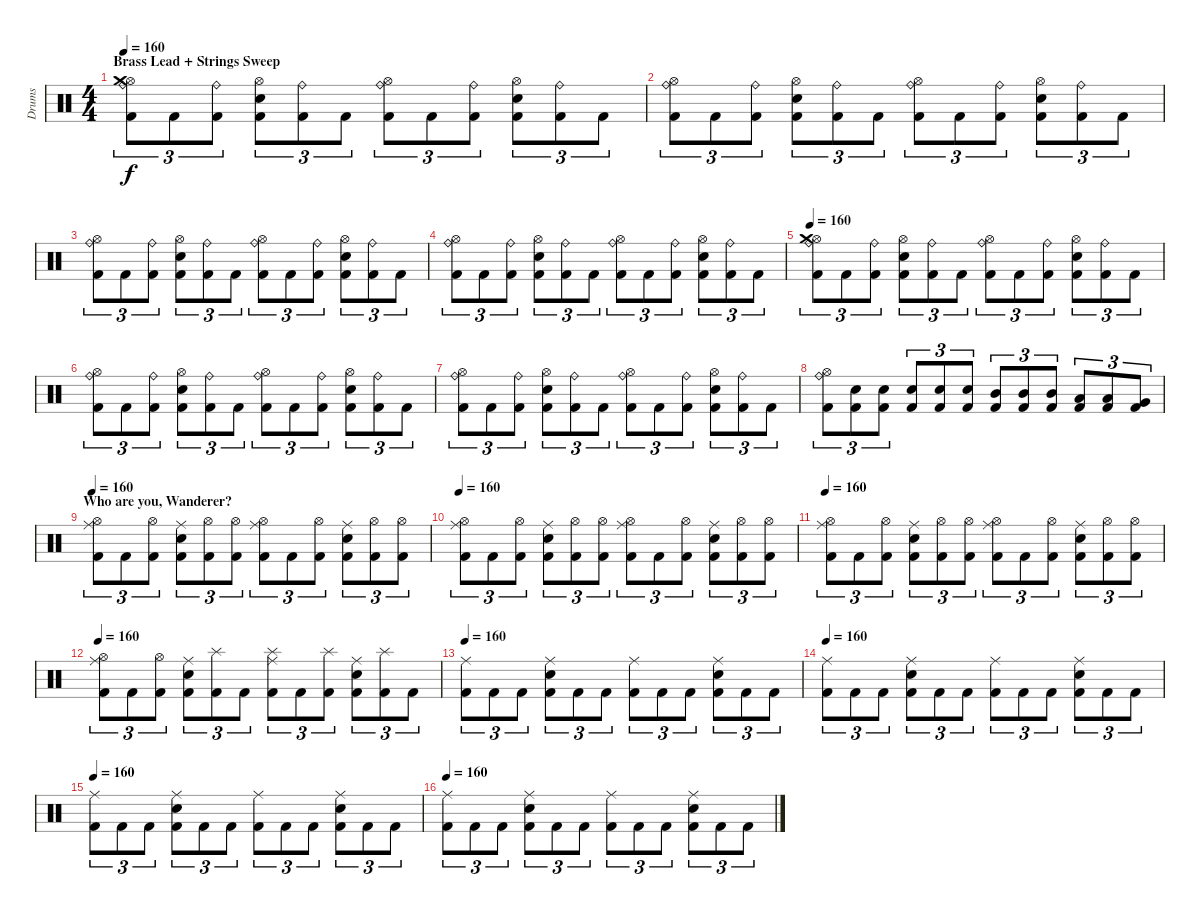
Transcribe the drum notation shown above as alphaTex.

\track ("Drums" "Drums") {instrument percussion}
\staff {score}
\articulation defaults
\ts (4 4)
\section ("" "Brass Lead + Strings Sweep")
\tempo 160
\clef neutral
\ks c
("Ride (bell)" "Hi-Hat (open)" "Crash medium (hit)" "Kick (hit) 2").8{tu (3 2) dy f} "Kick (hit) 2".8{tu (3 2)} ("Ride (bell)" "Kick (hit) 2").8{tu (3 2)} ("Hi-Hat (open)" "Snare (hit) 2" "Kick (hit) 2").8{tu (3 2)} ("Ride (bell)" "Kick (hit) 2").8{tu (3 2)} "Kick (hit) 2".8{tu (3 2)} ("Ride (bell)" "Hi-Hat (open)" "Kick (hit) 2").8{tu (3 2)} "Kick (hit) 2".8{tu (3 2)} ("Ride (bell)" "Kick (hit) 2").8{tu (3 2)} ("Hi-Hat (open)" "Snare (hit) 2" "Kick (hit) 2").8{tu (3 2)} ("Ride (bell)" "Kick (hit) 2").8{tu (3 2)} "Kick (hit) 2".8{tu (3 2)} |
("Ride (bell)" "Hi-Hat (open)" "Kick (hit) 2").8{tu (3 2)} "Kick (hit) 2".8{tu (3 2)} ("Ride (bell)" "Kick (hit) 2").8{tu (3 2)} ("Hi-Hat (open)" "Snare (hit) 2" "Kick (hit) 2").8{tu (3 2)} ("Ride (bell)" "Kick (hit) 2").8{tu (3 2)} "Kick (hit) 2".8{tu (3 2)} ("Ride (bell)" "Hi-Hat (open)" "Kick (hit) 2").8{tu (3 2)} "Kick (hit) 2".8{tu (3 2)} ("Ride (bell)" "Kick (hit) 2").8{tu (3 2)} ("Hi-Hat (open)" "Snare (hit) 2" "Kick (hit) 2").8{tu (3 2)} ("Ride (bell)" "Kick (hit) 2").8{tu (3 2)} "Kick (hit) 2".8{tu (3 2)} |
("Ride (bell)" "Hi-Hat (open)" "Kick (hit) 2").8{tu (3 2)} "Kick (hit) 2".8{tu (3 2)} ("Ride (bell)" "Kick (hit) 2").8{tu (3 2)} ("Hi-Hat (open)" "Snare (hit) 2" "Kick (hit) 2").8{tu (3 2)} ("Ride (bell)" "Kick (hit) 2").8{tu (3 2)} "Kick (hit) 2".8{tu (3 2)} ("Ride (bell)" "Hi-Hat (open)" "Kick (hit) 2").8{tu (3 2)} "Kick (hit) 2".8{tu (3 2)} ("Ride (bell)" "Kick (hit) 2").8{tu (3 2)} ("Hi-Hat (open)" "Snare (hit) 2" "Kick (hit) 2").8{tu (3 2)} ("Ride (bell)" "Kick (hit) 2").8{tu (3 2)} "Kick (hit) 2".8{tu (3 2)} |
("Ride (bell)" "Hi-Hat (open)" "Kick (hit) 2").8{tu (3 2)} "Kick (hit) 2".8{tu (3 2)} ("Ride (bell)" "Kick (hit) 2").8{tu (3 2)} ("Hi-Hat (open)" "Snare (hit) 2" "Kick (hit) 2").8{tu (3 2)} ("Ride (bell)" "Kick (hit) 2").8{tu (3 2)} "Kick (hit) 2".8{tu (3 2)} ("Ride (bell)" "Hi-Hat (open)" "Kick (hit) 2").8{tu (3 2)} "Kick (hit) 2".8{tu (3 2)} ("Ride (bell)" "Kick (hit) 2").8{tu (3 2)} ("Hi-Hat (open)" "Snare (hit) 2" "Kick (hit) 2").8{tu (3 2)} ("Ride (bell)" "Kick (hit) 2").8{tu (3 2)} "Kick (hit) 2".8{tu (3 2)} |
\tempo 160
("Ride (bell)" "Hi-Hat (open)" "Crash medium (hit)" "Kick (hit) 2").8{tu (3 2)} "Kick (hit) 2".8{tu (3 2)} ("Ride (bell)" "Kick (hit) 2").8{tu (3 2)} ("Hi-Hat (open)" "Snare (hit) 2" "Kick (hit) 2").8{tu (3 2)} ("Ride (bell)" "Kick (hit) 2").8{tu (3 2)} "Kick (hit) 2".8{tu (3 2)} ("Ride (bell)" "Hi-Hat (open)" "Kick (hit) 2").8{tu (3 2)} "Kick (hit) 2".8{tu (3 2)} ("Ride (bell)" "Kick (hit) 2").8{tu (3 2)} ("Hi-Hat (open)" "Snare (hit) 2" "Kick (hit) 2").8{tu (3 2)} ("Ride (bell)" "Kick (hit) 2").8{tu (3 2)} "Kick (hit) 2".8{tu (3 2)} |
("Ride (bell)" "Hi-Hat (open)" "Kick (hit) 2").8{tu (3 2)} "Kick (hit) 2".8{tu (3 2)} ("Ride (bell)" "Kick (hit) 2").8{tu (3 2)} ("Hi-Hat (open)" "Snare (hit) 2" "Kick (hit) 2").8{tu (3 2)} ("Ride (bell)" "Kick (hit) 2").8{tu (3 2)} "Kick (hit) 2".8{tu (3 2)} ("Ride (bell)" "Hi-Hat (open)" "Kick (hit) 2").8{tu (3 2)} "Kick (hit) 2".8{tu (3 2)} ("Ride (bell)" "Kick (hit) 2").8{tu (3 2)} ("Hi-Hat (open)" "Snare (hit) 2" "Kick (hit) 2").8{tu (3 2)} ("Ride (bell)" "Kick (hit) 2").8{tu (3 2)} "Kick (hit) 2".8{tu (3 2)} |
("Ride (bell)" "Hi-Hat (open)" "Kick (hit) 2").8{tu (3 2)} "Kick (hit) 2".8{tu (3 2)} ("Ride (bell)" "Kick (hit) 2").8{tu (3 2)} ("Hi-Hat (open)" "Snare (hit) 2" "Kick (hit) 2").8{tu (3 2)} ("Ride (bell)" "Kick (hit) 2").8{tu (3 2)} "Kick (hit) 2".8{tu (3 2)} ("Ride (bell)" "Hi-Hat (open)" "Kick (hit) 2").8{tu (3 2)} "Kick (hit) 2".8{tu (3 2)} ("Ride (bell)" "Kick (hit) 2").8{tu (3 2)} ("Hi-Hat (open)" "Snare (hit) 2" "Kick (hit) 2").8{tu (3 2)} ("Ride (bell)" "Kick (hit) 2").8{tu (3 2)} "Kick (hit) 2".8{tu (3 2)} |
("Ride (bell)" "Hi-Hat (open)" "Kick (hit) 2").8{tu (3 2)} ("Snare (hit) 2" "Kick (hit) 2").8{tu (3 2)} ("Snare (hit) 2" "Kick (hit) 2").8{tu (3 2)} ("Snare (hit) 2" "Kick (hit) 2").8{tu (3 2)} ("Snare (hit) 2" "Kick (hit) 2").8{tu (3 2)} ("Snare (hit) 2" "Kick (hit) 2").8{tu (3 2)} ("Mid Tom (hit)" "Kick (hit) 2").8{tu (3 2)} ("Mid Tom (hit)" "Kick (hit) 2").8{tu (3 2)} ("Mid Tom (hit)" "Kick (hit) 2").8{tu (3 2)} ("Low Tom (hit)" "Kick (hit) 2").8{tu (3 2)} ("Low Tom (hit)" "Kick (hit) 2").8{tu (3 2)} ("Very Low Tom (hit)" "Kick (hit) 2").8{tu (3 2)} |
\section ("" "Who are you, Wanderer?")
\tempo 160
("Ride (middle)" "Hi-Hat (open)" "Kick (hit) 2").8{tu (3 2)} "Kick (hit) 2".8{tu (3 2)} ("Hi-Hat (open)" "Kick (hit) 2").8{tu (3 2)} ("Ride (middle)" "Snare (hit) 2" "Kick (hit) 2").8{tu (3 2)} ("Hi-Hat (open)" "Kick (hit) 2").8{tu (3 2)} ("Hi-Hat (open)" "Kick (hit) 2").8{tu (3 2)} ("Ride (middle)" "Hi-Hat (open)" "Kick (hit) 2").8{tu (3 2)} "Kick (hit) 2".8{tu (3 2)} ("Hi-Hat (open)" "Kick (hit) 2").8{tu (3 2)} ("Ride (middle)" "Snare (hit) 2" "Kick (hit) 2").8{tu (3 2)} ("Hi-Hat (open)" "Kick (hit) 2").8{tu (3 2)} ("Hi-Hat (open)" "Kick (hit) 2").8{tu (3 2)} |
\tempo 160
("Ride (middle)" "Hi-Hat (open)" "Kick (hit) 2").8{tu (3 2)} "Kick (hit) 2".8{tu (3 2)} ("Hi-Hat (open)" "Kick (hit) 2").8{tu (3 2)} ("Ride (middle)" "Snare (hit) 2" "Kick (hit) 2").8{tu (3 2)} ("Hi-Hat (open)" "Kick (hit) 2").8{tu (3 2)} ("Hi-Hat (open)" "Kick (hit) 2").8{tu (3 2)} ("Ride (middle)" "Hi-Hat (open)" "Kick (hit) 2").8{tu (3 2)} "Kick (hit) 2".8{tu (3 2)} ("Hi-Hat (open)" "Kick (hit) 2").8{tu (3 2)} ("Ride (middle)" "Snare (hit) 2" "Kick (hit) 2").8{tu (3 2)} ("Hi-Hat (open)" "Kick (hit) 2").8{tu (3 2)} ("Hi-Hat (open)" "Kick (hit) 2").8{tu (3 2)} |
\tempo 160
("Ride (middle)" "Hi-Hat (open)" "Kick (hit) 2").8{tu (3 2)} "Kick (hit) 2".8{tu (3 2)} ("Hi-Hat (open)" "Kick (hit) 2").8{tu (3 2)} ("Ride (middle)" "Snare (hit) 2" "Kick (hit) 2").8{tu (3 2)} ("Hi-Hat (open)" "Kick (hit) 2").8{tu (3 2)} ("Hi-Hat (open)" "Kick (hit) 2").8{tu (3 2)} ("Ride (middle)" "Hi-Hat (open)" "Kick (hit) 2").8{tu (3 2)} "Kick (hit) 2".8{tu (3 2)} ("Hi-Hat (open)" "Kick (hit) 2").8{tu (3 2)} ("Ride (middle)" "Snare (hit) 2" "Kick (hit) 2").8{tu (3 2)} ("Hi-Hat (open)" "Kick (hit) 2").8{tu (3 2)} ("Hi-Hat (open)" "Kick (hit) 2").8{tu (3 2)} |
\tempo 160
("Ride (middle)" "Hi-Hat (open)" "Kick (hit) 2").8{tu (3 2)} "Kick (hit) 2".8{tu (3 2)} ("Hi-Hat (open)" "Kick (hit) 2").8{tu (3 2)} ("Ride (middle)" "Snare (hit) 2" "Kick (hit) 2").8{tu (3 2)} ("Splash (hit)" "Kick (hit) 2").8{tu (3 2)} "Kick (hit) 2".8{tu (3 2)} ("Ride (middle)" "Splash (hit)" "Kick (hit) 2").8{tu (3 2)} "Kick (hit) 2".8{tu (3 2)} ("Splash (hit)" "Kick (hit) 2").8{tu (3 2)} ("Ride (middle)" "Snare (hit) 2" "Kick (hit) 2").8{tu (3 2)} ("Splash (hit)" "Kick (hit) 2").8{tu (3 2)} "Kick (hit) 2".8{tu (3 2)} |
\tempo 160
("Ride (middle)" "Kick (hit) 2").8{tu (3 2)} "Kick (hit) 2".8{tu (3 2)} "Kick (hit) 2".8{tu (3 2)} ("Ride (middle)" "Snare (hit) 2" "Kick (hit) 2").8{tu (3 2)} "Kick (hit) 2".8{tu (3 2)} "Kick (hit) 2".8{tu (3 2)} ("Ride (middle)" "Kick (hit) 2").8{tu (3 2)} "Kick (hit) 2".8{tu (3 2)} "Kick (hit) 2".8{tu (3 2)} ("Ride (middle)" "Snare (hit) 2" "Kick (hit) 2").8{tu (3 2)} "Kick (hit) 2".8{tu (3 2)} "Kick (hit) 2".8{tu (3 2)} |
\tempo 160
("Ride (middle)" "Kick (hit) 2").8{tu (3 2)} "Kick (hit) 2".8{tu (3 2)} "Kick (hit) 2".8{tu (3 2)} ("Ride (middle)" "Snare (hit) 2" "Kick (hit) 2").8{tu (3 2)} "Kick (hit) 2".8{tu (3 2)} "Kick (hit) 2".8{tu (3 2)} ("Ride (middle)" "Kick (hit) 2").8{tu (3 2)} "Kick (hit) 2".8{tu (3 2)} "Kick (hit) 2".8{tu (3 2)} ("Ride (middle)" "Snare (hit) 2" "Kick (hit) 2").8{tu (3 2)} "Kick (hit) 2".8{tu (3 2)} "Kick (hit) 2".8{tu (3 2)} |
\tempo 160
("Ride (middle)" "Kick (hit) 2").8{tu (3 2)} "Kick (hit) 2".8{tu (3 2)} "Kick (hit) 2".8{tu (3 2)} ("Ride (middle)" "Snare (hit) 2" "Kick (hit) 2").8{tu (3 2)} "Kick (hit) 2".8{tu (3 2)} "Kick (hit) 2".8{tu (3 2)} ("Ride (middle)" "Kick (hit) 2").8{tu (3 2)} "Kick (hit) 2".8{tu (3 2)} "Kick (hit) 2".8{tu (3 2)} ("Ride (middle)" "Snare (hit) 2" "Kick (hit) 2").8{tu (3 2)} "Kick (hit) 2".8{tu (3 2)} "Kick (hit) 2".8{tu (3 2)} |
\tempo 160
("Ride (middle)" "Kick (hit) 2").8{tu (3 2)} "Kick (hit) 2".8{tu (3 2)} "Kick (hit) 2".8{tu (3 2)} ("Ride (middle)" "Snare (hit) 2" "Kick (hit) 2").8{tu (3 2)} "Kick (hit) 2".8{tu (3 2)} "Kick (hit) 2".8{tu (3 2)} ("Ride (middle)" "Kick (hit) 2").8{tu (3 2)} "Kick (hit) 2".8{tu (3 2)} "Kick (hit) 2".8{tu (3 2)} ("Ride (middle)" "Snare (hit) 2" "Kick (hit) 2").8{tu (3 2)} "Kick (hit) 2".8{tu (3 2)} "Kick (hit) 2".8{tu (3 2)}
